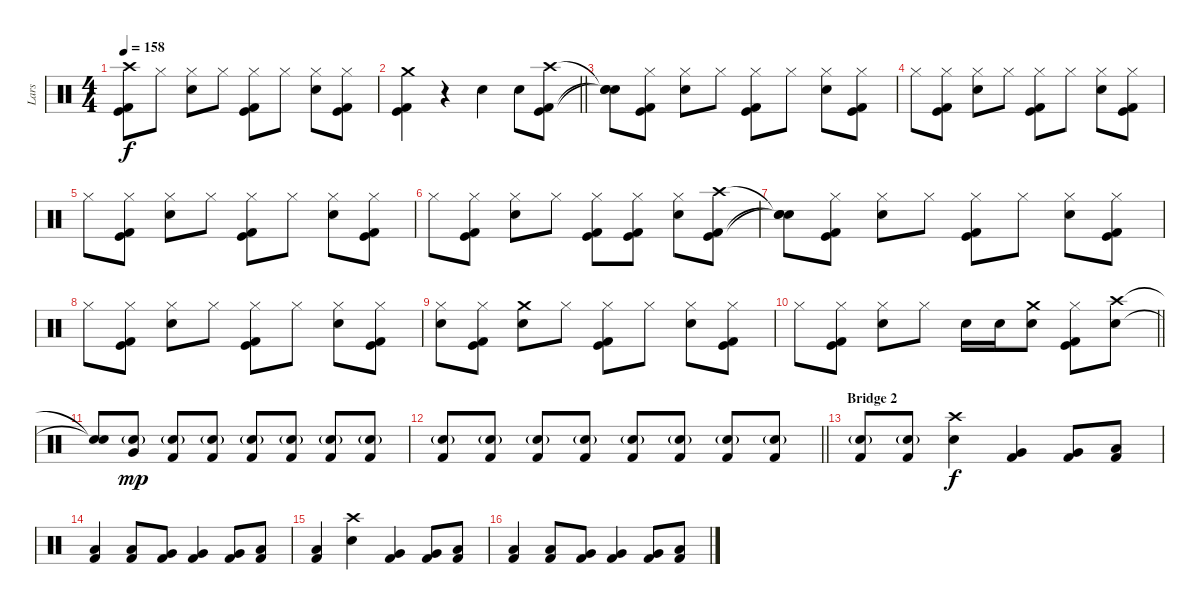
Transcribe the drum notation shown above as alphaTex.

\track ("Lars" "Lars") {instrument percussion}
\staff {score}
\articulation defaults
\ts (4 4)
\tempo 158
\clef neutral
\ks c
("Crash high (hit)" "Kick (hit)" "Kick (hit) 2").8{dy f} "Hi-Hat (closed)".8 ("Hi-Hat (closed)" "Electric Snare (hit)").8 "Hi-Hat (closed)".8 ("Hi-Hat (closed)" "Kick (hit)" "Kick (hit) 2").8 "Hi-Hat (closed)".8 ("Hi-Hat (closed)" "Electric Snare (hit)").8 ("Hi-Hat (closed)" "Kick (hit)" "Kick (hit) 2").8 |
\barLineRight lightlight
("Crash medium (hit)" "Kick (hit)" "Kick (hit) 2").4 r.4 "Electric Snare (hit)".4 "Electric Snare (hit)".8 ("Crash high (hit)" "Kick (hit)" "Kick (hit) 2").8 |
\section ("" "")
("Snare (hit)"{t} "Snare (hit)"{t} "Snare (hit)"{t}).8 ("Hi-Hat (closed)" "Kick (hit)" "Kick (hit) 2").8 ("Hi-Hat (closed)" "Electric Snare (hit)").8 "Hi-Hat (closed)".8 ("Hi-Hat (closed)" "Kick (hit)" "Kick (hit) 2").8 "Hi-Hat (closed)".8 ("Hi-Hat (closed)" "Electric Snare (hit)").8 ("Hi-Hat (closed)" "Kick (hit)" "Kick (hit) 2").8 |
"Hi-Hat (closed)".8 ("Hi-Hat (closed)" "Kick (hit)" "Kick (hit) 2").8 ("Hi-Hat (closed)" "Electric Snare (hit)").8 "Hi-Hat (closed)".8 ("Hi-Hat (closed)" "Kick (hit)" "Kick (hit) 2").8 "Hi-Hat (closed)".8 ("Hi-Hat (closed)" "Electric Snare (hit)").8 ("Hi-Hat (closed)" "Kick (hit)" "Kick (hit) 2").8 |
"Hi-Hat (closed)".8 ("Hi-Hat (closed)" "Kick (hit)" "Kick (hit) 2").8 ("Hi-Hat (closed)" "Electric Snare (hit)").8 "Hi-Hat (closed)".8 ("Hi-Hat (closed)" "Kick (hit)" "Kick (hit) 2").8 "Hi-Hat (closed)".8 ("Hi-Hat (closed)" "Electric Snare (hit)").8 ("Hi-Hat (closed)" "Kick (hit)" "Kick (hit) 2").8 |
"Hi-Hat (closed)".8 ("Hi-Hat (closed)" "Kick (hit)" "Kick (hit) 2").8 ("Hi-Hat (closed)" "Electric Snare (hit)").8 "Hi-Hat (closed)".8 ("Hi-Hat (closed)" "Kick (hit)" "Kick (hit) 2").8 ("Hi-Hat (closed)" "Kick (hit)" "Kick (hit) 2").8 ("Hi-Hat (closed)" "Electric Snare (hit)").8 ("Crash high (hit)" "Kick (hit)" "Kick (hit) 2").8 |
("Snare (hit)"{t} "Snare (hit)"{t} "Snare (hit)"{t}).8 ("Hi-Hat (closed)" "Kick (hit)" "Kick (hit) 2").8 ("Hi-Hat (closed)" "Electric Snare (hit)").8 "Hi-Hat (closed)".8 ("Hi-Hat (closed)" "Kick (hit)" "Kick (hit) 2").8 "Hi-Hat (closed)".8 ("Hi-Hat (closed)" "Electric Snare (hit)").8 ("Hi-Hat (closed)" "Kick (hit)" "Kick (hit) 2").8 |
"Hi-Hat (closed)".8 ("Hi-Hat (closed)" "Kick (hit)" "Kick (hit) 2").8 ("Hi-Hat (closed)" "Electric Snare (hit)").8 "Hi-Hat (closed)".8 ("Hi-Hat (closed)" "Kick (hit)" "Kick (hit) 2").8 "Hi-Hat (closed)".8 ("Hi-Hat (closed)" "Electric Snare (hit)").8 ("Hi-Hat (closed)" "Kick (hit)" "Kick (hit) 2").8 |
("Hi-Hat (closed)" "Electric Snare (hit)").8 ("Hi-Hat (closed)" "Kick (hit)" "Kick (hit) 2").8 ("Crash medium (hit)" "Electric Snare (hit)").8 "Hi-Hat (closed)".8 ("Hi-Hat (closed)" "Kick (hit)" "Kick (hit) 2").8 "Hi-Hat (closed)".8 ("Hi-Hat (closed)" "Electric Snare (hit)").8 ("Hi-Hat (closed)" "Kick (hit)" "Kick (hit) 2").8 |
\barLineRight lightlight "Hi-Hat (closed)".8
("Hi-Hat (closed)" "Kick (hit)" "Kick (hit) 2").8 ("Hi-Hat (closed)" "Electric Snare (hit)").8 "Hi-Hat (closed)".8 "Electric Snare (hit)".16 "Electric Snare (hit)".16 ("Crash medium (hit)" "Electric Snare (hit)").8 ("Hi-Hat (closed)" "Kick (hit)" "Kick (hit) 2").8 ("Crash high (hit)" "Electric Snare (hit)").8 |
\section ("" "")
("Snare (hit)"{t} "Snare (hit)"{t}).8 ("Electric Snare (hit)"{g} "Very Low Tom (hit)").8{dy mp} ("Electric Snare (hit)"{g} "Kick (hit) 2").8 ("Electric Snare (hit)"{g} "Kick (hit) 2").8 ("Electric Snare (hit)"{g} "Kick (hit) 2").8 ("Electric Snare (hit)"{g} "Kick (hit) 2").8 ("Electric Snare (hit)"{g} "Kick (hit) 2").8 ("Electric Snare (hit)"{g} "Kick (hit) 2").8 |
\barLineRight lightlight
("Electric Snare (hit)"{g} "Kick (hit) 2").8 ("Electric Snare (hit)"{g} "Kick (hit) 2").8 ("Electric Snare (hit)"{g} "Kick (hit) 2").8 ("Electric Snare (hit)"{g} "Kick (hit) 2").8 ("Electric Snare (hit)"{g} "Kick (hit) 2").8 ("Electric Snare (hit)"{g} "Kick (hit) 2").8 ("Electric Snare (hit)"{g} "Kick (hit) 2").8 ("Electric Snare (hit)"{g} "Kick (hit) 2").8 |
\section ("" "Bridge 2")
("Electric Snare (hit)"{g} "Kick (hit) 2").8 ("Electric Snare (hit)"{g} "Kick (hit) 2").8 ("Crash high (hit)" "Electric Snare (hit)").4{dy f} ("Kick (hit) 2" "Very Low Tom (hit)").4 ("Kick (hit) 2" "Very Low Tom (hit)").8 ("Kick (hit) 2" "Low Floor Tom (hit)").8 |
("Kick (hit) 2" "Low Tom (hit)").4 ("Kick (hit) 2" "Low Tom (hit)").8 ("Kick (hit) 2" "Very Low Tom (hit)").8 ("Kick (hit) 2" "Very Low Tom (hit)").4 ("Kick (hit) 2" "Very Low Tom (hit)").8 ("Kick (hit) 2" "Low Floor Tom (hit)").8 |
("Kick (hit) 2" "Low Tom (hit)").4 ("Crash high (hit)" "Electric Snare (hit)").4 ("Kick (hit) 2" "Very Low Tom (hit)").4 ("Kick (hit) 2" "Very Low Tom (hit)").8 ("Kick (hit) 2" "Low Floor Tom (hit)").8 |
("Kick (hit) 2" "Low Tom (hit)").4 ("Kick (hit) 2" "Low Tom (hit)").8 ("Kick (hit) 2" "Very Low Tom (hit)").8 ("Kick (hit) 2" "Very Low Tom (hit)").4 ("Kick (hit) 2" "Very Low Tom (hit)").8 ("Kick (hit) 2" "Low Floor Tom (hit)").8
